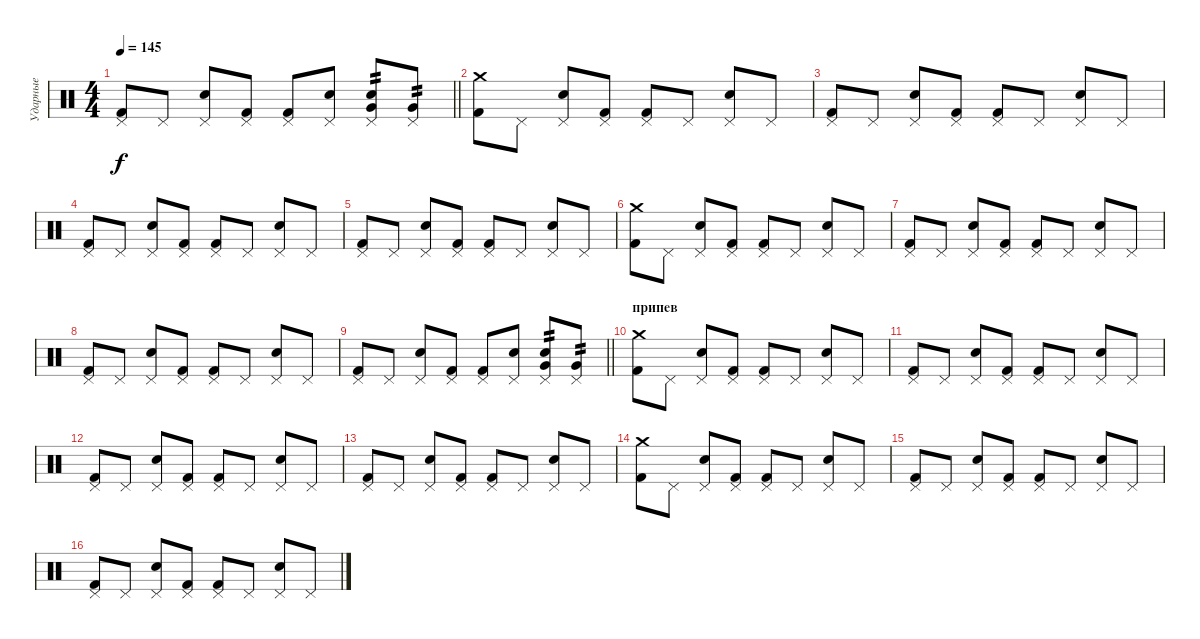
\track ("Ударные" "Ударные") {instrument percussion}
\staff {score}
\articulation defaults
\ts (4 4)
\tempo 145
\clef neutral
\barLineRight lightlight
\ks c
("Pedal Hi-Hat (hit)" "Kick (hit) 2").8{dy f} "Pedal Hi-Hat (hit)".8 ("Pedal Hi-Hat (hit)" "Electric Snare (hit)").8 ("Pedal Hi-Hat (hit)" "Kick (hit) 2").8 ("Pedal Hi-Hat (hit)" "Kick (hit) 2").8 ("Pedal Hi-Hat (hit)" "Electric Snare (hit)").8 ("Pedal Hi-Hat (hit)" "Very Low Tom (hit)" "Electric Snare (hit)").8{tp 2} ("Pedal Hi-Hat (hit)" "Very Low Tom (hit)").8{tp 2} |
("Crash medium (hit)" "Kick (hit) 2").8 "Pedal Hi-Hat (hit)".8 ("Pedal Hi-Hat (hit)" "Electric Snare (hit)").8 ("Pedal Hi-Hat (hit)" "Kick (hit) 2").8 ("Pedal Hi-Hat (hit)" "Kick (hit) 2").8 "Pedal Hi-Hat (hit)".8 ("Pedal Hi-Hat (hit)" "Electric Snare (hit)").8 "Pedal Hi-Hat (hit)".8 |
("Pedal Hi-Hat (hit)" "Kick (hit) 2").8 "Pedal Hi-Hat (hit)".8 ("Pedal Hi-Hat (hit)" "Electric Snare (hit)").8 ("Pedal Hi-Hat (hit)" "Kick (hit) 2").8 ("Pedal Hi-Hat (hit)" "Kick (hit) 2").8 "Pedal Hi-Hat (hit)".8 ("Pedal Hi-Hat (hit)" "Electric Snare (hit)").8 "Pedal Hi-Hat (hit)".8 |
("Pedal Hi-Hat (hit)" "Kick (hit) 2").8 "Pedal Hi-Hat (hit)".8 ("Pedal Hi-Hat (hit)" "Electric Snare (hit)").8 ("Pedal Hi-Hat (hit)" "Kick (hit) 2").8 ("Pedal Hi-Hat (hit)" "Kick (hit) 2").8 "Pedal Hi-Hat (hit)".8 ("Pedal Hi-Hat (hit)" "Electric Snare (hit)").8 "Pedal Hi-Hat (hit)".8 |
("Pedal Hi-Hat (hit)" "Kick (hit) 2").8 "Pedal Hi-Hat (hit)".8 ("Pedal Hi-Hat (hit)" "Electric Snare (hit)").8 ("Pedal Hi-Hat (hit)" "Kick (hit) 2").8 ("Pedal Hi-Hat (hit)" "Kick (hit) 2").8 "Pedal Hi-Hat (hit)".8 ("Pedal Hi-Hat (hit)" "Electric Snare (hit)").8 "Pedal Hi-Hat (hit)".8 |
("Crash medium (hit)" "Kick (hit) 2").8 "Pedal Hi-Hat (hit)".8 ("Pedal Hi-Hat (hit)" "Electric Snare (hit)").8 ("Pedal Hi-Hat (hit)" "Kick (hit) 2").8 ("Pedal Hi-Hat (hit)" "Kick (hit) 2").8 "Pedal Hi-Hat (hit)".8 ("Pedal Hi-Hat (hit)" "Electric Snare (hit)").8 "Pedal Hi-Hat (hit)".8 |
("Pedal Hi-Hat (hit)" "Kick (hit) 2").8 "Pedal Hi-Hat (hit)".8 ("Pedal Hi-Hat (hit)" "Electric Snare (hit)").8 ("Pedal Hi-Hat (hit)" "Kick (hit) 2").8 ("Pedal Hi-Hat (hit)" "Kick (hit) 2").8 "Pedal Hi-Hat (hit)".8 ("Pedal Hi-Hat (hit)" "Electric Snare (hit)").8 "Pedal Hi-Hat (hit)".8 |
("Pedal Hi-Hat (hit)" "Kick (hit) 2").8 "Pedal Hi-Hat (hit)".8 ("Pedal Hi-Hat (hit)" "Electric Snare (hit)").8 ("Pedal Hi-Hat (hit)" "Kick (hit) 2").8 ("Pedal Hi-Hat (hit)" "Kick (hit) 2").8 "Pedal Hi-Hat (hit)".8 ("Pedal Hi-Hat (hit)" "Electric Snare (hit)").8 "Pedal Hi-Hat (hit)".8 |
\barLineRight lightlight
("Pedal Hi-Hat (hit)" "Kick (hit) 2").8 "Pedal Hi-Hat (hit)".8 ("Pedal Hi-Hat (hit)" "Electric Snare (hit)").8 ("Pedal Hi-Hat (hit)" "Kick (hit) 2").8 ("Pedal Hi-Hat (hit)" "Kick (hit) 2").8 ("Pedal Hi-Hat (hit)" "Electric Snare (hit)").8 ("Pedal Hi-Hat (hit)" "Very Low Tom (hit)" "Electric Snare (hit)").8{tp 2} ("Pedal Hi-Hat (hit)" "Very Low Tom (hit)").8{tp 2} |
\section ("" "припев")
("Crash medium (hit)" "Kick (hit) 2").8 "Pedal Hi-Hat (hit)".8 ("Pedal Hi-Hat (hit)" "Electric Snare (hit)").8 ("Pedal Hi-Hat (hit)" "Kick (hit) 2").8 ("Pedal Hi-Hat (hit)" "Kick (hit) 2").8 "Pedal Hi-Hat (hit)".8 ("Pedal Hi-Hat (hit)" "Electric Snare (hit)").8 "Pedal Hi-Hat (hit)".8 |
("Pedal Hi-Hat (hit)" "Kick (hit) 2").8 "Pedal Hi-Hat (hit)".8 ("Pedal Hi-Hat (hit)" "Electric Snare (hit)").8 ("Pedal Hi-Hat (hit)" "Kick (hit) 2").8 ("Pedal Hi-Hat (hit)" "Kick (hit) 2").8 "Pedal Hi-Hat (hit)".8 ("Pedal Hi-Hat (hit)" "Electric Snare (hit)").8 "Pedal Hi-Hat (hit)".8 |
("Pedal Hi-Hat (hit)" "Kick (hit) 2").8 "Pedal Hi-Hat (hit)".8 ("Pedal Hi-Hat (hit)" "Electric Snare (hit)").8 ("Pedal Hi-Hat (hit)" "Kick (hit) 2").8 ("Pedal Hi-Hat (hit)" "Kick (hit) 2").8 "Pedal Hi-Hat (hit)".8 ("Pedal Hi-Hat (hit)" "Electric Snare (hit)").8 "Pedal Hi-Hat (hit)".8 |
("Pedal Hi-Hat (hit)" "Kick (hit) 2").8 "Pedal Hi-Hat (hit)".8 ("Pedal Hi-Hat (hit)" "Electric Snare (hit)").8 ("Pedal Hi-Hat (hit)" "Kick (hit) 2").8 ("Pedal Hi-Hat (hit)" "Kick (hit) 2").8 "Pedal Hi-Hat (hit)".8 ("Pedal Hi-Hat (hit)" "Electric Snare (hit)").8 "Pedal Hi-Hat (hit)".8 |
("Crash medium (hit)" "Kick (hit) 2").8 "Pedal Hi-Hat (hit)".8 ("Pedal Hi-Hat (hit)" "Electric Snare (hit)").8 ("Pedal Hi-Hat (hit)" "Kick (hit) 2").8 ("Pedal Hi-Hat (hit)" "Kick (hit) 2").8 "Pedal Hi-Hat (hit)".8 ("Pedal Hi-Hat (hit)" "Electric Snare (hit)").8 "Pedal Hi-Hat (hit)".8 |
("Pedal Hi-Hat (hit)" "Kick (hit) 2").8 "Pedal Hi-Hat (hit)".8 ("Pedal Hi-Hat (hit)" "Electric Snare (hit)").8 ("Pedal Hi-Hat (hit)" "Kick (hit) 2").8 ("Pedal Hi-Hat (hit)" "Kick (hit) 2").8 "Pedal Hi-Hat (hit)".8 ("Pedal Hi-Hat (hit)" "Electric Snare (hit)").8 "Pedal Hi-Hat (hit)".8 |
("Pedal Hi-Hat (hit)" "Kick (hit) 2").8 "Pedal Hi-Hat (hit)".8 ("Pedal Hi-Hat (hit)" "Electric Snare (hit)").8 ("Pedal Hi-Hat (hit)" "Kick (hit) 2").8 ("Pedal Hi-Hat (hit)" "Kick (hit) 2").8 "Pedal Hi-Hat (hit)".8 ("Pedal Hi-Hat (hit)" "Electric Snare (hit)").8 "Pedal Hi-Hat (hit)".8
